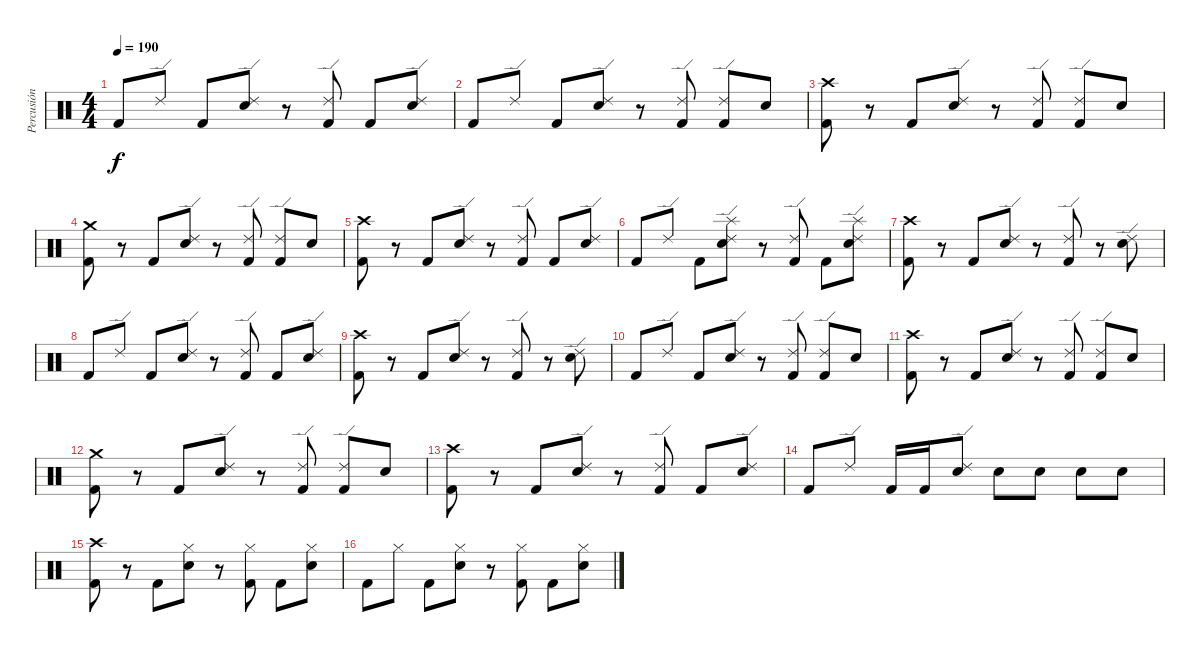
\track ("Percusión" "Percusión") {instrument percussion}
\staff {score}
\articulation defaults
\ts (4 4)
\tempo 190
\clef neutral
\ks c "Kick (hit) 2".8{dy f} "Ride (edge) 2".8 "Kick (hit) 2".8
("Ride (edge) 2" "Snare (hit) 2").8 r.8 ("Ride (edge) 2" "Kick (hit) 2").8 "Kick (hit) 2".8 ("Ride (edge) 2" "Snare (hit) 2").8 |
"Kick (hit) 2".8 "Ride (edge) 2".8 "Kick (hit) 2".8 ("Ride (edge) 2" "Snare (hit) 2").8 r.8 ("Ride (edge) 2" "Kick (hit) 2").8 ("Ride (edge) 2" "Kick (hit) 2").8 "Snare (hit) 2".8 |
("Crash high (hit)" "Kick (hit) 2").8 r.8 "Kick (hit) 2".8 ("Ride (edge) 2" "Snare (hit) 2").8 r.8 ("Ride (edge) 2" "Kick (hit) 2").8 ("Ride (edge) 2" "Kick (hit) 2").8 "Snare (hit) 2".8 |
("Crash medium (hit)" "Kick (hit) 2").8 r.8 "Kick (hit) 2".8 ("Ride (edge) 2" "Snare (hit) 2").8 r.8 ("Ride (edge) 2" "Kick (hit) 2").8 ("Ride (edge) 2" "Kick (hit) 2").8 "Snare (hit) 2".8 |
("Crash high (hit)" "Kick (hit) 2").8 r.8 "Kick (hit) 2".8 ("Ride (edge) 2" "Snare (hit) 2").8 r.8 ("Ride (edge) 2" "Kick (hit) 2").8 "Kick (hit) 2".8 ("Ride (edge) 2" "Snare (hit) 2").8 |
"Kick (hit) 2".8 "Ride (edge) 2".8 "Kick (hit) 2".8 ("Ride (edge) 2" "Splash (hit)" "Snare (hit) 2").8 r.8 ("Ride (edge) 2" "Kick (hit) 2").8 "Kick (hit) 2".8 ("Ride (edge) 2" "Splash (hit)" "Snare (hit) 2").8 |
("Crash high (hit)" "Kick (hit) 2").8 r.8 "Kick (hit) 2".8 ("Ride (edge) 2" "Snare (hit) 2").8 r.8 ("Ride (edge) 2" "Kick (hit) 2").8 r.8 ("Ride (edge) 2" "Snare (hit) 2").8 |
"Kick (hit) 2".8 "Ride (edge) 2".8 "Kick (hit) 2".8 ("Ride (edge) 2" "Snare (hit) 2").8 r.8 ("Ride (edge) 2" "Kick (hit) 2").8 "Kick (hit) 2".8 ("Ride (edge) 2" "Snare (hit) 2").8 |
("Crash high (hit)" "Kick (hit) 2").8 r.8 "Kick (hit) 2".8 ("Ride (edge) 2" "Snare (hit) 2").8 r.8 ("Ride (edge) 2" "Kick (hit) 2").8 r.8 ("Ride (edge) 2" "Snare (hit) 2").8 |
"Kick (hit) 2".8 "Ride (edge) 2".8 "Kick (hit) 2".8 ("Ride (edge) 2" "Snare (hit) 2").8 r.8 ("Ride (edge) 2" "Kick (hit) 2").8 ("Ride (edge) 2" "Kick (hit) 2").8 "Snare (hit) 2".8 |
("Crash high (hit)" "Kick (hit) 2").8 r.8 "Kick (hit) 2".8 ("Ride (edge) 2" "Snare (hit) 2").8 r.8 ("Ride (edge) 2" "Kick (hit) 2").8 ("Ride (edge) 2" "Kick (hit) 2").8 "Snare (hit) 2".8 |
("Crash medium (hit)" "Kick (hit) 2").8 r.8 "Kick (hit) 2".8 ("Ride (edge) 2" "Snare (hit) 2").8 r.8 ("Ride (edge) 2" "Kick (hit) 2").8 ("Ride (edge) 2" "Kick (hit) 2").8 "Snare (hit) 2".8 |
("Crash high (hit)" "Kick (hit) 2").8 r.8 "Kick (hit) 2".8 ("Ride (edge) 2" "Snare (hit) 2").8 r.8 ("Ride (edge) 2" "Kick (hit) 2").8 "Kick (hit) 2".8 ("Ride (edge) 2" "Snare (hit) 2").8 |
"Kick (hit) 2".8 "Ride (edge) 2".8 "Kick (hit) 2".16 "Kick (hit) 2".16 ("Ride (edge) 2" "Snare (hit) 2").8 "Snare (hit) 2".8 "Snare (hit) 2".8 "Snare (hit) 2".8 "Snare (hit) 2".8 |
("Crash high (hit)" "Kick (hit) 2").8 r.8 "Kick (hit) 2".8 ("Hi-Hat (closed)" "Snare (hit) 2").8 r.8 ("Hi-Hat (closed)" "Kick (hit) 2").8 "Kick (hit) 2".8 ("Hi-Hat (closed)" "Snare (hit) 2").8 |
"Kick (hit) 2".8 "Hi-Hat (closed)".8 "Kick (hit) 2".8 ("Hi-Hat (closed)" "Snare (hit) 2").8 r.8 ("Hi-Hat (closed)" "Kick (hit) 2").8 "Kick (hit) 2".8 ("Hi-Hat (closed)" "Snare (hit) 2").8
